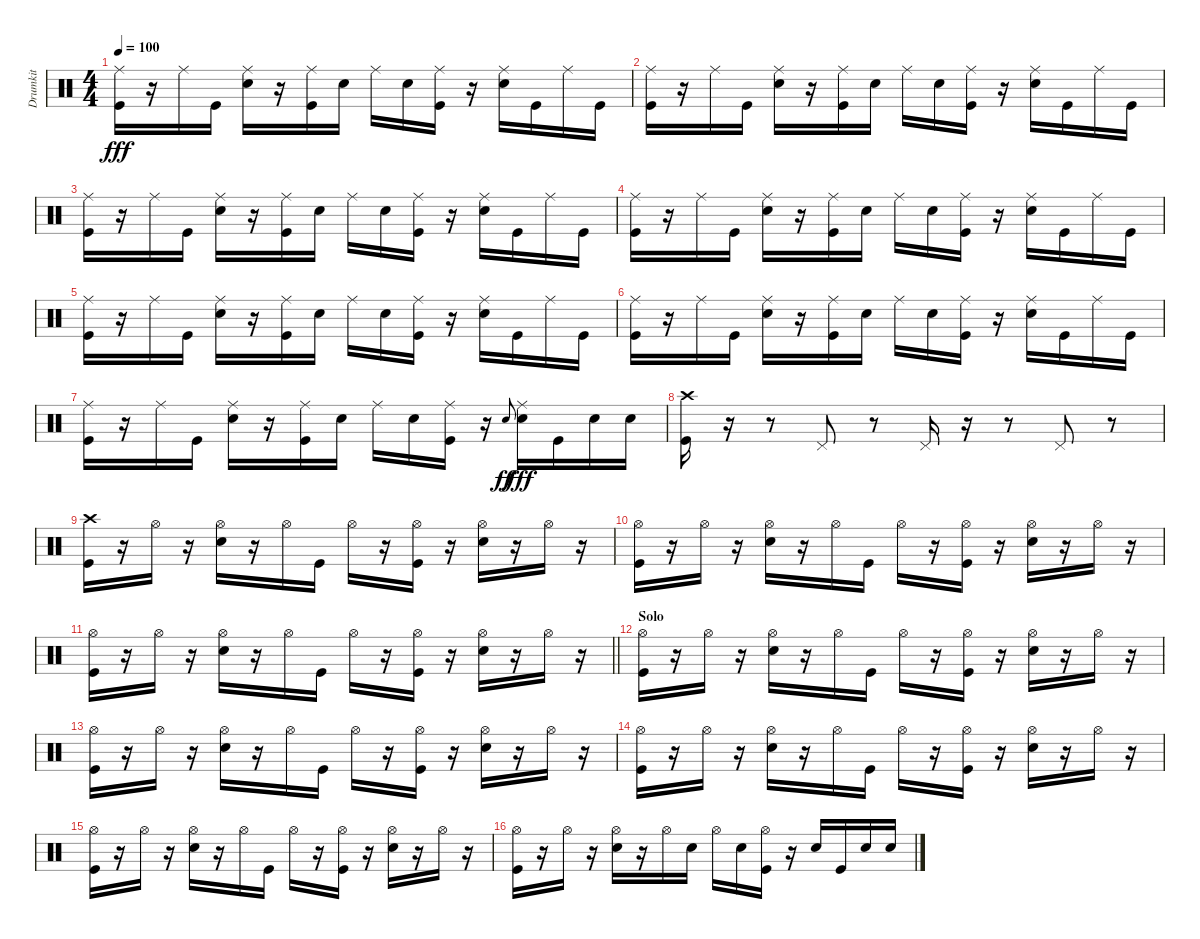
\track ("Drumkit" "Drumkit") {instrument percussion}
\staff {score}
\articulation defaults
\ts (4 4)
\tempo 100
\clef neutral
\ks c
("Ride (middle)" "Kick (hit)").16{dy fff} r.16 "Ride (middle)".16 "Kick (hit)".16 ("Ride (middle)" "Snare (hit) 2").16 r.16 ("Ride (middle)" "Kick (hit)").16 "Snare (hit) 2".16 "Ride (middle)".16 "Snare (hit) 2".16 ("Ride (middle)" "Kick (hit)").16 r.16 ("Ride (middle)" "Snare (hit) 2").16 "Kick (hit)".16 "Ride (middle)".16 "Kick (hit)".16 |
("Ride (middle)" "Kick (hit)").16 r.16 "Ride (middle)".16 "Kick (hit)".16 ("Ride (middle)" "Snare (hit) 2").16 r.16 ("Ride (middle)" "Kick (hit)").16 "Snare (hit) 2".16 "Ride (middle)".16 "Snare (hit) 2".16 ("Ride (middle)" "Kick (hit)").16 r.16 ("Ride (middle)" "Snare (hit) 2").16 "Kick (hit)".16 "Ride (middle)".16 "Kick (hit)".16 |
("Ride (middle)" "Kick (hit)").16 r.16 "Ride (middle)".16 "Kick (hit)".16 ("Ride (middle)" "Snare (hit) 2").16 r.16 ("Ride (middle)" "Kick (hit)").16 "Snare (hit) 2".16 "Ride (middle)".16 "Snare (hit) 2".16 ("Ride (middle)" "Kick (hit)").16 r.16 ("Ride (middle)" "Snare (hit) 2").16 "Kick (hit)".16 "Ride (middle)".16 "Kick (hit)".16 |
("Ride (middle)" "Kick (hit)").16 r.16 "Ride (middle)".16 "Kick (hit)".16 ("Ride (middle)" "Snare (hit) 2").16 r.16 ("Ride (middle)" "Kick (hit)").16 "Snare (hit) 2".16 "Ride (middle)".16 "Snare (hit) 2".16 ("Ride (middle)" "Kick (hit)").16 r.16 ("Ride (middle)" "Snare (hit) 2").16 "Kick (hit)".16 "Ride (middle)".16 "Kick (hit)".16 |
("Ride (middle)" "Kick (hit)").16 r.16 "Ride (middle)".16 "Kick (hit)".16 ("Ride (middle)" "Snare (hit) 2").16 r.16 ("Ride (middle)" "Kick (hit)").16 "Snare (hit) 2".16 "Ride (middle)".16 "Snare (hit) 2".16 ("Ride (middle)" "Kick (hit)").16 r.16 ("Ride (middle)" "Snare (hit) 2").16 "Kick (hit)".16 "Ride (middle)".16 "Kick (hit)".16 |
("Ride (middle)" "Kick (hit)").16 r.16 "Ride (middle)".16 "Kick (hit)".16 ("Ride (middle)" "Snare (hit) 2").16 r.16 ("Ride (middle)" "Kick (hit)").16 "Snare (hit) 2".16 "Ride (middle)".16 "Snare (hit) 2".16 ("Ride (middle)" "Kick (hit)").16 r.16 ("Ride (middle)" "Snare (hit) 2").16 "Kick (hit)".16 "Ride (middle)".16 "Kick (hit)".16 |
("Ride (middle)" "Kick (hit)").16 r.16 "Ride (middle)".16 "Kick (hit)".16 ("Ride (middle)" "Snare (hit) 2").16 r.16 ("Ride (middle)" "Kick (hit)").16 "Snare (hit) 2".16 "Ride (middle)".16 "Snare (hit) 2".16 ("Ride (middle)" "Kick (hit)").16 r.16 "Snare (hit)".8{gr onbeat dy ff} ("Ride (middle)" "Snare (hit) 2").16{dy fff} "Kick (hit)".16 "Snare (hit) 2".16 "Snare (hit) 2".16 |
("Crash high (hit)" "Kick (hit)").16 r.16 r.8 "Pedal Hi-Hat (hit)".8 r.8 "Pedal Hi-Hat (hit)".16 r.16 r.8 "Pedal Hi-Hat (hit)".8 r.8 |
("Crash high (hit)" "Kick (hit)").16 r.16 "Hi-Hat (open)".16 r.16 ("Hi-Hat (open)" "Snare (hit) 2").16 r.16 "Hi-Hat (open)".16 "Kick (hit)".16 "Hi-Hat (open)".16 r.16 ("Hi-Hat (open)" "Kick (hit)").16 r.16 ("Hi-Hat (open)" "Snare (hit) 2").16 r.16 "Hi-Hat (open)".16 r.16 |
("Hi-Hat (open)" "Kick (hit)").16 r.16 "Hi-Hat (open)".16 r.16 ("Hi-Hat (open)" "Snare (hit) 2").16 r.16 "Hi-Hat (open)".16 "Kick (hit)".16 "Hi-Hat (open)".16 r.16 ("Hi-Hat (open)" "Kick (hit)").16 r.16 ("Hi-Hat (open)" "Snare (hit) 2").16 r.16 "Hi-Hat (open)".16 r.16 |
\barLineRight lightlight
("Hi-Hat (open)" "Kick (hit)").16 r.16 "Hi-Hat (open)".16 r.16 ("Hi-Hat (open)" "Snare (hit) 2").16 r.16 "Hi-Hat (open)".16 "Kick (hit)".16 "Hi-Hat (open)".16 r.16 ("Hi-Hat (open)" "Kick (hit)").16 r.16 ("Hi-Hat (open)" "Snare (hit) 2").16 r.16 "Hi-Hat (open)".16 r.16 |
\section ("" "Solo")
("Hi-Hat (open)" "Kick (hit)").16 r.16 "Hi-Hat (open)".16 r.16 ("Hi-Hat (open)" "Snare (hit) 2").16 r.16 "Hi-Hat (open)".16 "Kick (hit)".16 "Hi-Hat (open)".16 r.16 ("Hi-Hat (open)" "Kick (hit)").16 r.16 ("Hi-Hat (open)" "Snare (hit) 2").16 r.16 "Hi-Hat (open)".16 r.16 |
("Hi-Hat (open)" "Kick (hit)").16 r.16 "Hi-Hat (open)".16 r.16 ("Hi-Hat (open)" "Snare (hit) 2").16 r.16 "Hi-Hat (open)".16 "Kick (hit)".16 "Hi-Hat (open)".16 r.16 ("Hi-Hat (open)" "Kick (hit)").16 r.16 ("Hi-Hat (open)" "Snare (hit) 2").16 r.16 "Hi-Hat (open)".16 r.16 |
("Hi-Hat (open)" "Kick (hit)").16 r.16 "Hi-Hat (open)".16 r.16 ("Hi-Hat (open)" "Snare (hit) 2").16 r.16 "Hi-Hat (open)".16 "Kick (hit)".16 "Hi-Hat (open)".16 r.16 ("Hi-Hat (open)" "Kick (hit)").16 r.16 ("Hi-Hat (open)" "Snare (hit) 2").16 r.16 "Hi-Hat (open)".16 r.16 |
("Hi-Hat (open)" "Kick (hit)").16 r.16 "Hi-Hat (open)".16 r.16 ("Hi-Hat (open)" "Snare (hit) 2").16 r.16 "Hi-Hat (open)".16 "Kick (hit)".16 "Hi-Hat (open)".16 r.16 ("Hi-Hat (open)" "Kick (hit)").16 r.16 ("Hi-Hat (open)" "Snare (hit) 2").16 r.16 "Hi-Hat (open)".16 r.16 |
("Hi-Hat (open)" "Kick (hit)").16 r.16 "Hi-Hat (open)".16 r.16 ("Hi-Hat (open)" "Snare (hit) 2").16 r.16 "Hi-Hat (open)".16 "Snare (hit) 2".16 "Hi-Hat (open)".16 "Snare (hit) 2".16 ("Hi-Hat (open)" "Kick (hit)").16 r.16 "Snare (hit) 2".16 "Kick (hit)".16 "Snare (hit) 2".16 "Snare (hit) 2".16
